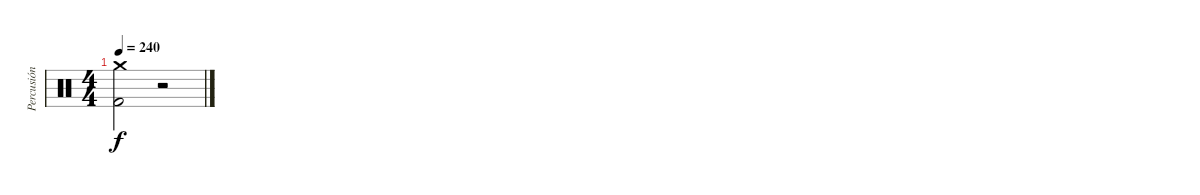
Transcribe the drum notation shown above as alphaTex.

\track ("Percusión" "Percusión") {instrument percussion}
\staff {score}
\articulation defaults
\ts (4 4)
\tempo 240
\clef neutral
\ks c
("Crash medium (hit)" "Kick (hit) 2").2{dy f} r.2
